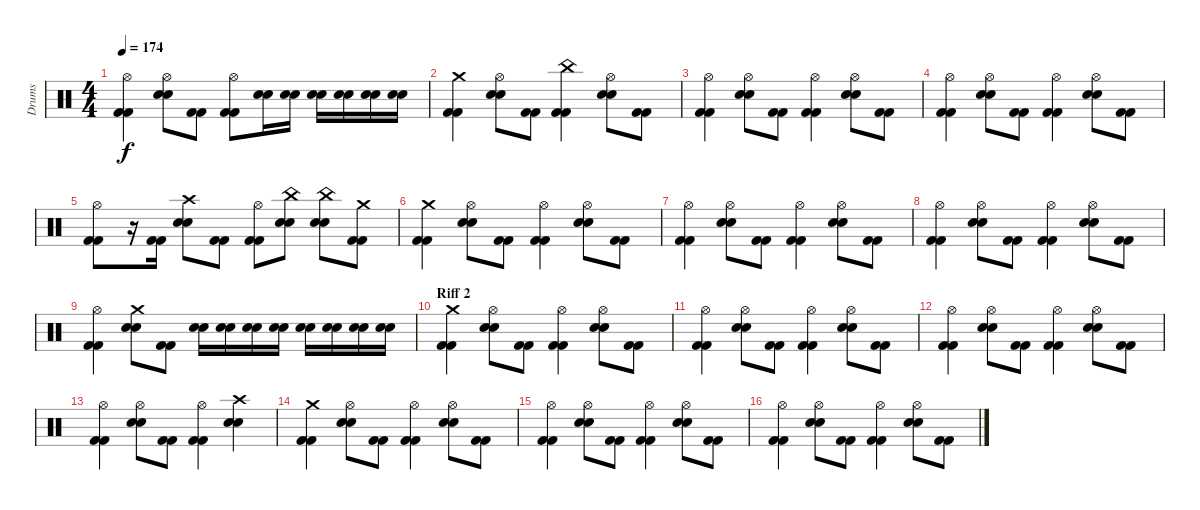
\track ("Drums" "Drums") {instrument percussion}
\staff {score}
\articulation defaults
\ts (4 4)
\tempo 174
\clef neutral
\ks c
("Hi-Hat (open)" "Kick (hit) 2" "Kick (hit) 2").4{dy f} ("Hi-Hat (open)" "Snare (hit) 2" "Snare (hit) 2").8 ("Kick (hit) 2" "Kick (hit) 2").8 ("Hi-Hat (open)" "Kick (hit) 2" "Kick (hit) 2").8 ("Snare (hit) 2" "Snare (hit) 2").16 ("Snare (hit) 2" "Snare (hit) 2").16 ("Snare (hit) 2" "Snare (hit) 2").16 ("Snare (hit) 2" "Snare (hit) 2").16 ("Snare (hit) 2" "Snare (hit) 2").16 ("Snare (hit) 2" "Snare (hit) 2").16 |
("Crash medium (hit)" "Kick (hit) 2" "Kick (hit) 2").4 ("Hi-Hat (open)" "Snare (hit) 2" "Snare (hit) 2").8 ("Kick (hit) 2" "Kick (hit) 2").8 ("China (hit)" "Kick (hit) 2" "Kick (hit) 2").4 ("Hi-Hat (open)" "Snare (hit) 2" "Snare (hit) 2").8 ("Kick (hit) 2" "Kick (hit) 2").8 |
("Hi-Hat (open)" "Kick (hit) 2" "Kick (hit) 2").4 ("Hi-Hat (open)" "Snare (hit) 2" "Snare (hit) 2").8 ("Kick (hit) 2" "Kick (hit) 2").8 ("Hi-Hat (open)" "Kick (hit) 2" "Kick (hit) 2").4 ("Hi-Hat (open)" "Snare (hit) 2" "Snare (hit) 2").8 ("Kick (hit) 2" "Kick (hit) 2").8 |
("Hi-Hat (open)" "Kick (hit) 2" "Kick (hit) 2").4 ("Hi-Hat (open)" "Snare (hit) 2" "Snare (hit) 2").8 ("Kick (hit) 2" "Kick (hit) 2").8 ("Hi-Hat (open)" "Kick (hit) 2" "Kick (hit) 2").4 ("Hi-Hat (open)" "Snare (hit) 2" "Snare (hit) 2").8 ("Kick (hit) 2" "Kick (hit) 2").8 |
("Hi-Hat (open)" "Kick (hit) 2" "Kick (hit) 2").8 r.16 ("Kick (hit) 2" "Kick (hit) 2").16 ("Crash high (hit)" "Snare (hit) 2" "Snare (hit) 2").8 ("Kick (hit) 2" "Kick (hit) 2").8 ("Hi-Hat (open)" "Kick (hit) 2" "Kick (hit) 2").8 ("China (hit)" "Snare (hit) 2" "Snare (hit) 2").8 ("China (hit)" "Snare (hit) 2" "Snare (hit) 2").8 ("Crash medium (hit)" "Kick (hit) 2" "Kick (hit) 2").8 |
("Crash medium (hit)" "Kick (hit) 2" "Kick (hit) 2").4 ("Hi-Hat (open)" "Snare (hit) 2" "Snare (hit) 2").8 ("Kick (hit) 2" "Kick (hit) 2").8 ("Hi-Hat (open)" "Kick (hit) 2" "Kick (hit) 2").4 ("Hi-Hat (open)" "Snare (hit) 2" "Snare (hit) 2").8 ("Kick (hit) 2" "Kick (hit) 2").8 |
("Hi-Hat (open)" "Kick (hit) 2" "Kick (hit) 2").4 ("Hi-Hat (open)" "Snare (hit) 2" "Snare (hit) 2").8 ("Kick (hit) 2" "Kick (hit) 2").8 ("Hi-Hat (open)" "Kick (hit) 2" "Kick (hit) 2").4 ("Hi-Hat (open)" "Snare (hit) 2" "Snare (hit) 2").8 ("Kick (hit) 2" "Kick (hit) 2").8 |
("Hi-Hat (open)" "Kick (hit) 2" "Kick (hit) 2").4 ("Hi-Hat (open)" "Snare (hit) 2" "Snare (hit) 2").8 ("Kick (hit) 2" "Kick (hit) 2").8 ("Hi-Hat (open)" "Kick (hit) 2" "Kick (hit) 2").4 ("Hi-Hat (open)" "Snare (hit) 2" "Snare (hit) 2").8 ("Kick (hit) 2" "Kick (hit) 2").8 |
("Hi-Hat (open)" "Kick (hit) 2" "Kick (hit) 2").4 ("Crash medium (hit)" "Snare (hit) 2" "Snare (hit) 2").8 ("Kick (hit) 2" "Kick (hit) 2").8 ("Snare (hit) 2" "Snare (hit) 2").16 ("Snare (hit) 2" "Snare (hit) 2").16 ("Snare (hit) 2" "Snare (hit) 2").16 ("Snare (hit) 2" "Snare (hit) 2").16 ("Snare (hit) 2" "Snare (hit) 2").16 ("Snare (hit) 2" "Snare (hit) 2").16 ("Snare (hit) 2" "Snare (hit) 2").16 ("Snare (hit) 2" "Snare (hit) 2").16 |
\section ("" "Riff 2")
("Crash medium (hit)" "Kick (hit) 2" "Kick (hit) 2").4 ("Hi-Hat (open)" "Snare (hit) 2" "Snare (hit) 2").8 ("Kick (hit) 2" "Kick (hit) 2").8 ("Hi-Hat (open)" "Kick (hit) 2" "Kick (hit) 2").4 ("Hi-Hat (open)" "Snare (hit) 2" "Snare (hit) 2").8 ("Kick (hit) 2" "Kick (hit) 2").8 |
("Hi-Hat (open)" "Kick (hit) 2" "Kick (hit) 2").4 ("Hi-Hat (open)" "Snare (hit) 2" "Snare (hit) 2").8 ("Kick (hit) 2" "Kick (hit) 2").8 ("Hi-Hat (open)" "Kick (hit) 2" "Kick (hit) 2").4 ("Hi-Hat (open)" "Snare (hit) 2" "Snare (hit) 2").8 ("Kick (hit) 2" "Kick (hit) 2").8 |
("Hi-Hat (open)" "Kick (hit) 2" "Kick (hit) 2").4 ("Hi-Hat (open)" "Snare (hit) 2" "Snare (hit) 2").8 ("Kick (hit) 2" "Kick (hit) 2").8 ("Hi-Hat (open)" "Kick (hit) 2" "Kick (hit) 2").4 ("Hi-Hat (open)" "Snare (hit) 2" "Snare (hit) 2").8 ("Kick (hit) 2" "Kick (hit) 2").8 |
("Hi-Hat (open)" "Kick (hit) 2" "Kick (hit) 2").4 ("Hi-Hat (open)" "Snare (hit) 2" "Snare (hit) 2").8 ("Kick (hit) 2" "Kick (hit) 2").8 ("Hi-Hat (open)" "Kick (hit) 2" "Kick (hit) 2").4 ("Crash high (hit)" "Snare (hit) 2" "Snare (hit) 2").4 |
("Crash medium (hit)" "Kick (hit) 2" "Kick (hit) 2").4 ("Hi-Hat (open)" "Snare (hit) 2" "Snare (hit) 2").8 ("Kick (hit) 2" "Kick (hit) 2").8 ("Hi-Hat (open)" "Kick (hit) 2" "Kick (hit) 2").4 ("Hi-Hat (open)" "Snare (hit) 2" "Snare (hit) 2").8 ("Kick (hit) 2" "Kick (hit) 2").8 |
("Hi-Hat (open)" "Kick (hit) 2" "Kick (hit) 2").4 ("Hi-Hat (open)" "Snare (hit) 2" "Snare (hit) 2").8 ("Kick (hit) 2" "Kick (hit) 2").8 ("Hi-Hat (open)" "Kick (hit) 2" "Kick (hit) 2").4 ("Hi-Hat (open)" "Snare (hit) 2" "Snare (hit) 2").8 ("Kick (hit) 2" "Kick (hit) 2").8 |
("Hi-Hat (open)" "Kick (hit) 2" "Kick (hit) 2").4 ("Hi-Hat (open)" "Snare (hit) 2" "Snare (hit) 2").8 ("Kick (hit) 2" "Kick (hit) 2").8 ("Hi-Hat (open)" "Kick (hit) 2" "Kick (hit) 2").4 ("Hi-Hat (open)" "Snare (hit) 2" "Snare (hit) 2").8 ("Kick (hit) 2" "Kick (hit) 2").8
